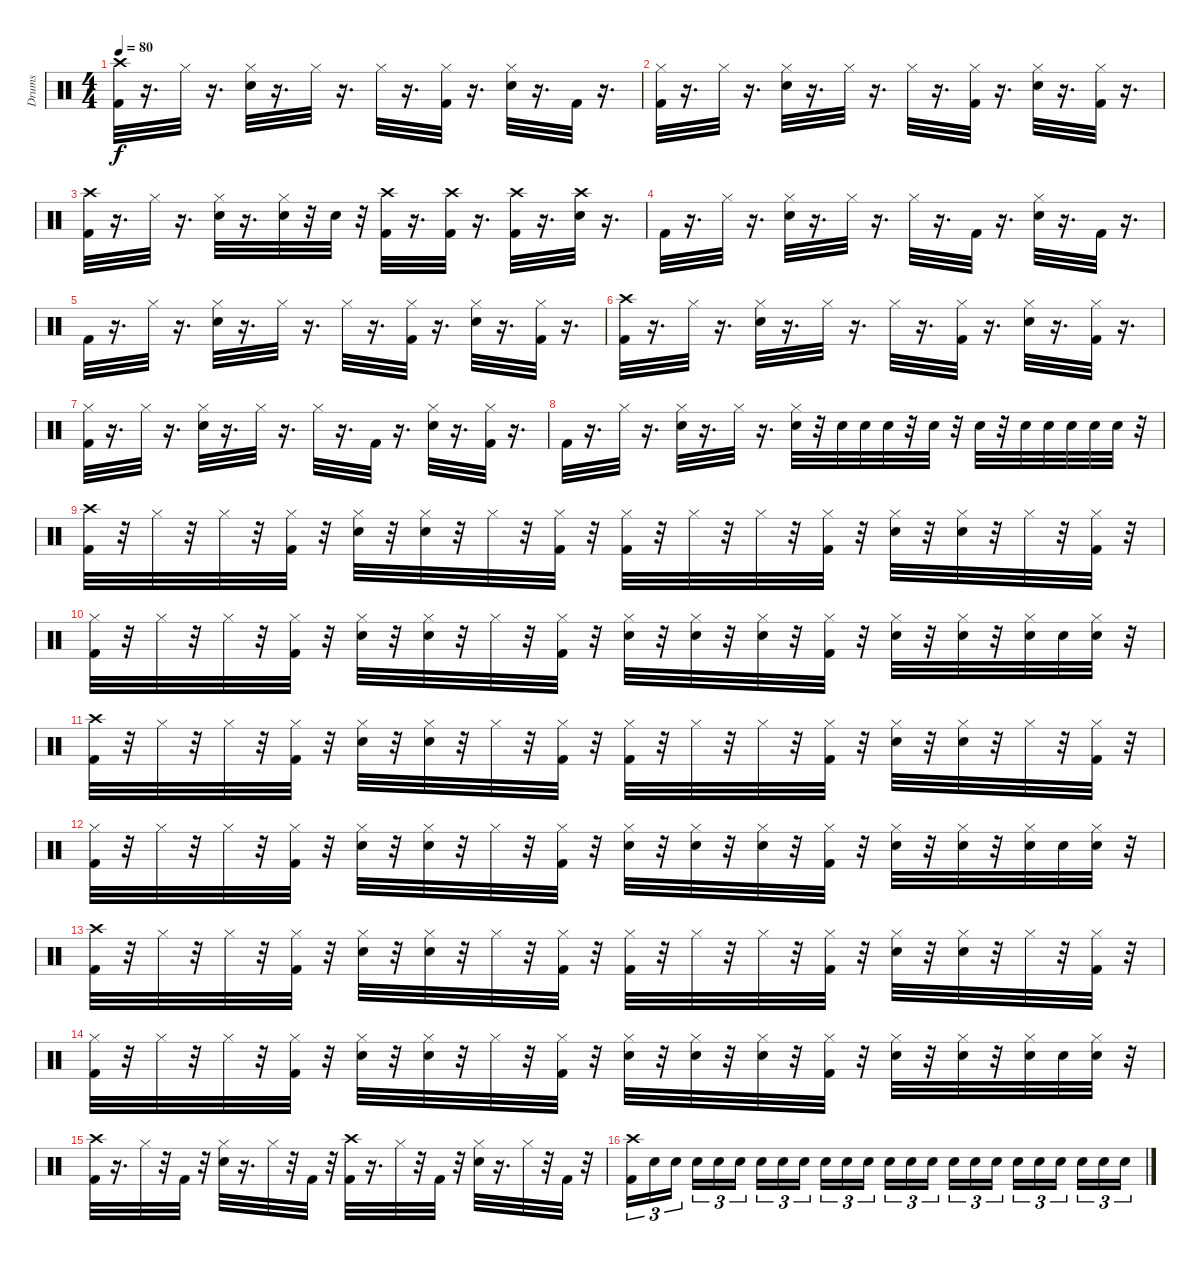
\track ("Drums" "Drums") {instrument percussion}
\staff {score}
\articulation defaults
\ts (4 4)
\tempo 80
\clef neutral
\ks c
("Crash high (hit)" "Kick (hit) 2").32{dy f} r.16{d} "Hi-Hat (closed)".32 r.16{d} ("Hi-Hat (closed)" "Snare (hit) 2").32 r.16{d} "Hi-Hat (closed)".32 r.16{d} "Hi-Hat (closed)".32 r.16{d} ("Hi-Hat (closed)" "Kick (hit) 2").32 r.16{d} ("Hi-Hat (closed)" "Snare (hit) 2").32 r.16{d} "Kick (hit) 2".32 r.16{d} |
("Hi-Hat (closed)" "Kick (hit) 2").32 r.16{d} "Hi-Hat (closed)".32 r.16{d} ("Hi-Hat (closed)" "Snare (hit) 2").32 r.16{d} "Hi-Hat (closed)".32 r.16{d} "Hi-Hat (closed)".32 r.16{d} ("Hi-Hat (closed)" "Kick (hit) 2").32 r.16{d} ("Hi-Hat (closed)" "Snare (hit) 2").32 r.16{d} ("Hi-Hat (closed)" "Kick (hit) 2").32 r.16{d} |
("Crash high (hit)" "Kick (hit) 2").32 r.16{d} "Hi-Hat (closed)".32 r.16{d} ("Hi-Hat (closed)" "Snare (hit) 2").32 r.16{d} ("Hi-Hat (closed)" "Snare (hit) 2").32 r.32 "Snare (hit) 2".32 r.32 ("Crash high (hit)" "Kick (hit) 2").32 r.16{d} ("Crash high (hit)" "Kick (hit) 2").32 r.16{d} ("Crash high (hit)" "Kick (hit) 2").32 r.16{d} ("Crash high (hit)" "Snare (hit) 2").32 r.16{d} |
"Kick (hit) 2".32 r.16{d} "Hi-Hat (closed)".32 r.16{d} ("Hi-Hat (closed)" "Snare (hit) 2").32 r.16{d} "Hi-Hat (closed)".32 r.16{d} "Hi-Hat (closed)".32 r.16{d} "Kick (hit) 2".32 r.16{d} ("Hi-Hat (closed)" "Snare (hit) 2").32 r.16{d} "Kick (hit) 2".32 r.16{d} |
"Kick (hit) 2".32 r.16{d} "Hi-Hat (closed)".32 r.16{d} ("Hi-Hat (closed)" "Snare (hit) 2").32 r.16{d} "Hi-Hat (closed)".32 r.16{d} "Hi-Hat (closed)".32 r.16{d} ("Hi-Hat (closed)" "Kick (hit) 2").32 r.16{d} ("Hi-Hat (closed)" "Snare (hit) 2").32 r.16{d} ("Hi-Hat (closed)" "Kick (hit) 2").32 r.16{d} |
("Crash high (hit)" "Kick (hit) 2").32 r.16{d} "Hi-Hat (closed)".32 r.16{d} ("Hi-Hat (closed)" "Snare (hit) 2").32 r.16{d} "Hi-Hat (closed)".32 r.16{d} "Hi-Hat (closed)".32 r.16{d} ("Hi-Hat (closed)" "Kick (hit) 2").32 r.16{d} ("Hi-Hat (closed)" "Snare (hit) 2").32 r.16{d} ("Hi-Hat (closed)" "Kick (hit) 2").32 r.16{d} |
("Hi-Hat (closed)" "Kick (hit) 2").32 r.16{d} "Hi-Hat (closed)".32 r.16{d} ("Hi-Hat (closed)" "Snare (hit) 2").32 r.16{d} "Hi-Hat (closed)".32 r.16{d} "Hi-Hat (closed)".32 r.16{d} "Kick (hit) 2".32 r.16{d} ("Hi-Hat (closed)" "Snare (hit) 2").32 r.16{d} ("Hi-Hat (closed)" "Kick (hit) 2").32 r.16{d} |
"Kick (hit) 2".32 r.16{d} "Hi-Hat (closed)".32 r.16{d} ("Hi-Hat (closed)" "Snare (hit) 2").32 r.16{d} "Hi-Hat (closed)".32 r.16{d} ("Snare (hit) 2" "Hi-Hat (closed)").32 r.32 "Snare (hit) 2".32 "Snare (hit) 2".32 "Snare (hit) 2".32 r.32 "Snare (hit) 2".32 r.32 "Snare (hit) 2".32 r.32 "Snare (hit) 2".32 "Snare (hit) 2".32 "Snare (hit) 2".32 "Snare (hit) 2".32 "Snare (hit) 2".32 r.32 |
("Crash high (hit)" "Kick (hit) 2").32 r.32 "Hi-Hat (closed)".32 r.32 "Hi-Hat (closed)".32 r.32 ("Hi-Hat (closed)" "Kick (hit) 2").32 r.32 ("Hi-Hat (closed)" "Snare (hit) 2").32 r.32 ("Hi-Hat (closed)" "Snare (hit) 2").32 r.32 "Hi-Hat (closed)".32 r.32 ("Hi-Hat (closed)" "Kick (hit) 2").32 r.32 ("Hi-Hat (closed)" "Kick (hit) 2").32 r.32 "Hi-Hat (closed)".32 r.32 "Hi-Hat (closed)".32 r.32 ("Hi-Hat (closed)" "Kick (hit) 2").32 r.32 ("Hi-Hat (closed)" "Snare (hit) 2").32 r.32 ("Hi-Hat (closed)" "Snare (hit) 2").32 r.32 "Hi-Hat (closed)".32 r.32 ("Hi-Hat (closed)" "Kick (hit) 2").32 r.32 |
("Kick (hit) 2" "Hi-Hat (closed)").32 r.32 "Hi-Hat (closed)".32 r.32 "Hi-Hat (closed)".32 r.32 ("Kick (hit) 2" "Hi-Hat (closed)").32 r.32 ("Snare (hit) 2" "Hi-Hat (closed)").32 r.32 ("Snare (hit) 2" "Hi-Hat (closed)").32 r.32 "Hi-Hat (closed)".32 r.32 ("Kick (hit) 2" "Hi-Hat (closed)").32 r.32 ("Snare (hit) 2" "Hi-Hat (closed)").32 r.32 ("Snare (hit) 2" "Hi-Hat (closed)").32 r.32 ("Snare (hit) 2" "Hi-Hat (closed)").32 r.32 ("Kick (hit) 2" "Hi-Hat (closed)").32 r.32 ("Snare (hit) 2" "Hi-Hat (closed)").32 r.32 ("Snare (hit) 2" "Hi-Hat (closed)").32 r.32 ("Snare (hit) 2" "Hi-Hat (closed)").32 "Snare (hit) 2".32 ("Snare (hit) 2" "Hi-Hat (closed)").32 r.32 |
("Crash high (hit)" "Kick (hit) 2").32 r.32 "Hi-Hat (closed)".32 r.32 "Hi-Hat (closed)".32 r.32 ("Hi-Hat (closed)" "Kick (hit) 2").32 r.32 ("Hi-Hat (closed)" "Snare (hit) 2").32 r.32 ("Hi-Hat (closed)" "Snare (hit) 2").32 r.32 "Hi-Hat (closed)".32 r.32 ("Hi-Hat (closed)" "Kick (hit) 2").32 r.32 ("Hi-Hat (closed)" "Kick (hit) 2").32 r.32 "Hi-Hat (closed)".32 r.32 "Hi-Hat (closed)".32 r.32 ("Hi-Hat (closed)" "Kick (hit) 2").32 r.32 ("Hi-Hat (closed)" "Snare (hit) 2").32 r.32 ("Hi-Hat (closed)" "Snare (hit) 2").32 r.32 "Hi-Hat (closed)".32 r.32 ("Hi-Hat (closed)" "Kick (hit) 2").32 r.32 |
("Kick (hit) 2" "Hi-Hat (closed)").32 r.32 "Hi-Hat (closed)".32 r.32 "Hi-Hat (closed)".32 r.32 ("Kick (hit) 2" "Hi-Hat (closed)").32 r.32 ("Snare (hit) 2" "Hi-Hat (closed)").32 r.32 ("Snare (hit) 2" "Hi-Hat (closed)").32 r.32 "Hi-Hat (closed)".32 r.32 ("Kick (hit) 2" "Hi-Hat (closed)").32 r.32 ("Snare (hit) 2" "Hi-Hat (closed)").32 r.32 ("Snare (hit) 2" "Hi-Hat (closed)").32 r.32 ("Snare (hit) 2" "Hi-Hat (closed)").32 r.32 ("Kick (hit) 2" "Hi-Hat (closed)").32 r.32 ("Snare (hit) 2" "Hi-Hat (closed)").32 r.32 ("Snare (hit) 2" "Hi-Hat (closed)").32 r.32 ("Snare (hit) 2" "Hi-Hat (closed)").32 "Snare (hit) 2".32 ("Snare (hit) 2" "Hi-Hat (closed)").32 r.32 |
("Crash high (hit)" "Kick (hit) 2").32 r.32 "Hi-Hat (closed)".32 r.32 "Hi-Hat (closed)".32 r.32 ("Hi-Hat (closed)" "Kick (hit) 2").32 r.32 ("Hi-Hat (closed)" "Snare (hit) 2").32 r.32 ("Hi-Hat (closed)" "Snare (hit) 2").32 r.32 "Hi-Hat (closed)".32 r.32 ("Hi-Hat (closed)" "Kick (hit) 2").32 r.32 ("Hi-Hat (closed)" "Kick (hit) 2").32 r.32 "Hi-Hat (closed)".32 r.32 "Hi-Hat (closed)".32 r.32 ("Hi-Hat (closed)" "Kick (hit) 2").32 r.32 ("Hi-Hat (closed)" "Snare (hit) 2").32 r.32 ("Hi-Hat (closed)" "Snare (hit) 2").32 r.32 "Hi-Hat (closed)".32 r.32 ("Hi-Hat (closed)" "Kick (hit) 2").32 r.32 |
("Kick (hit) 2" "Hi-Hat (closed)").32 r.32 "Hi-Hat (closed)".32 r.32 "Hi-Hat (closed)".32 r.32 ("Kick (hit) 2" "Hi-Hat (closed)").32 r.32 ("Snare (hit) 2" "Hi-Hat (closed)").32 r.32 ("Snare (hit) 2" "Hi-Hat (closed)").32 r.32 "Hi-Hat (closed)".32 r.32 ("Kick (hit) 2" "Hi-Hat (closed)").32 r.32 ("Snare (hit) 2" "Hi-Hat (closed)").32 r.32 ("Snare (hit) 2" "Hi-Hat (closed)").32 r.32 ("Snare (hit) 2" "Hi-Hat (closed)").32 r.32 ("Kick (hit) 2" "Hi-Hat (closed)").32 r.32 ("Snare (hit) 2" "Hi-Hat (closed)").32 r.32 ("Snare (hit) 2" "Hi-Hat (closed)").32 r.32 ("Snare (hit) 2" "Hi-Hat (closed)").32 "Snare (hit) 2".32 ("Snare (hit) 2" "Hi-Hat (closed)").32 r.32 |
("Crash high (hit)" "Kick (hit) 2").32 r.16{d} "Hi-Hat (closed)".32 r.32 "Kick (hit) 2".32 r.32 ("Hi-Hat (closed)" "Snare (hit) 2").32 r.16{d} "Hi-Hat (closed)".32 r.32 "Kick (hit) 2".32 r.32 ("Crash high (hit)" "Kick (hit) 2").32 r.16{d} "Hi-Hat (closed)".32 r.32 "Kick (hit) 2".32 r.32 ("Hi-Hat (closed)" "Snare (hit) 2").32 r.16{d} "Hi-Hat (closed)".32 r.32 "Kick (hit) 2".32 r.32 |
("Crash high (hit)" "Kick (hit) 2").16{tu (3 2)} "Snare (hit) 2".16{tu (3 2)} "Snare (hit) 2".16{tu (3 2)} "Snare (hit) 2".16{tu (3 2)} "Snare (hit) 2".16{tu (3 2)} "Snare (hit) 2".16{tu (3 2)} "Snare (hit) 2".16{tu (3 2)} "Snare (hit) 2".16{tu (3 2)} "Snare (hit) 2".16{tu (3 2)} "Snare (hit) 2".16{tu (3 2)} "Snare (hit) 2".16{tu (3 2)} "Snare (hit) 2".16{tu (3 2)} "Snare (hit) 2".16{tu (3 2)} "Snare (hit) 2".16{tu (3 2)} "Snare (hit) 2".16{tu (3 2)} "Snare (hit) 2".16{tu (3 2)} "Snare (hit) 2".16{tu (3 2)} "Snare (hit) 2".16{tu (3 2)} "Snare (hit) 2".16{tu (3 2)} "Snare (hit) 2".16{tu (3 2)} "Snare (hit) 2".16{tu (3 2)} "Snare (hit) 2".16{tu (3 2)} "Snare (hit) 2".16{tu (3 2)} "Snare (hit) 2".16{tu (3 2)}
